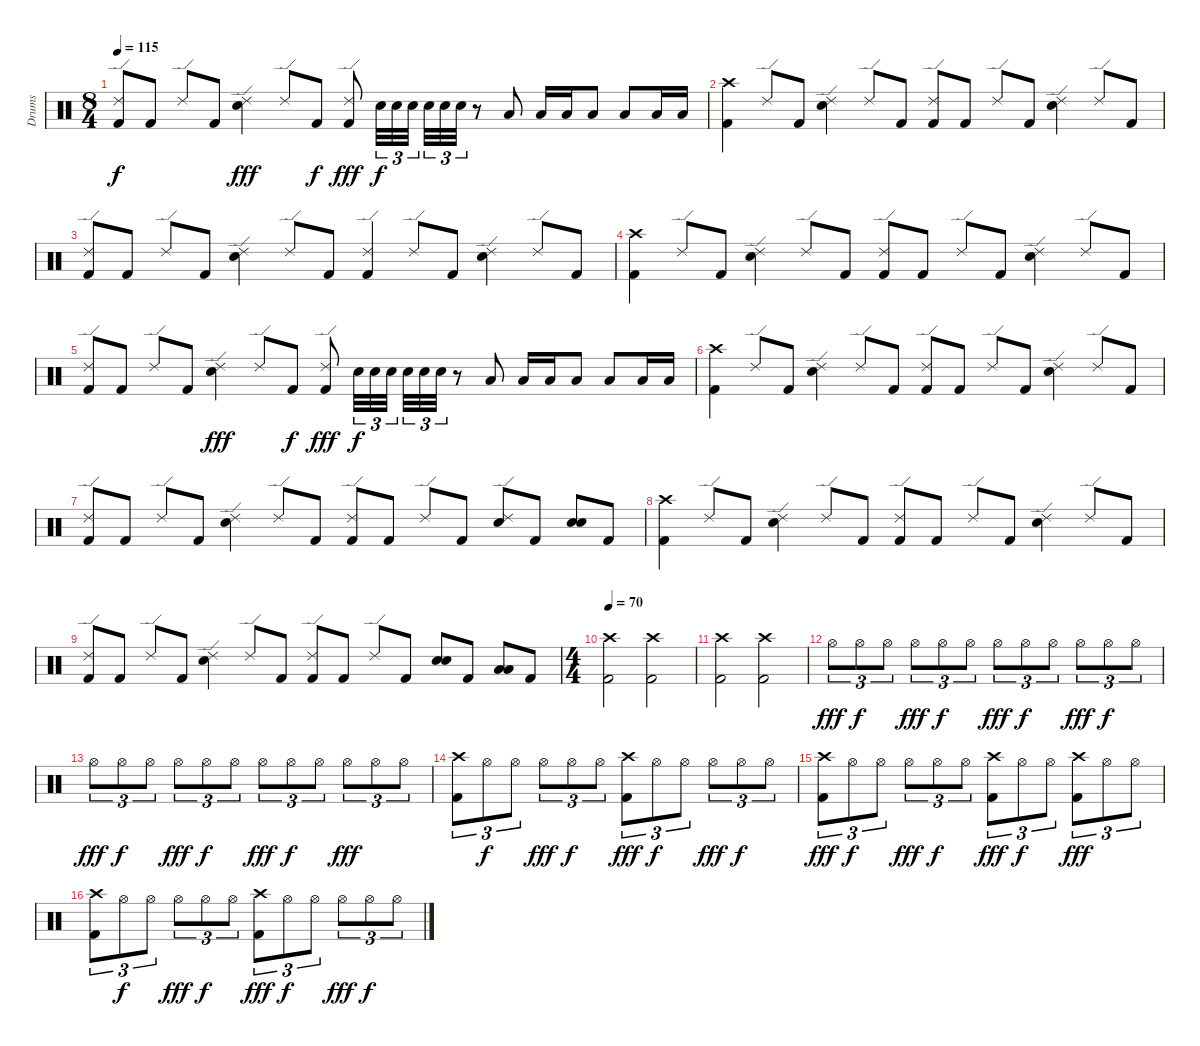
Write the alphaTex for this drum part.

\track ("Drums" "Drums") {instrument percussion}
\staff {score}
\articulation defaults
\ts (8 4)
\tempo 115
\clef neutral
\ks c
("Ride (edge) 2" "Kick (hit) 2").8{dy f} "Kick (hit) 2".8 "Ride (edge) 2".8 "Kick (hit) 2".8 ("Ride (edge) 2" "Electric Snare (hit)").4{dy fff} "Ride (edge) 2".8 "Kick (hit) 2".8{dy f} ("Ride (edge) 2" "Kick (hit) 2").8{dy fff} "Electric Snare (hit)".32{tu (3 2) dy f} "Electric Snare (hit)".32{tu (3 2)} "Electric Snare (hit)".32{tu (3 2)} "Electric Snare (hit)".32{tu (3 2)} "Electric Snare (hit)".32{tu (3 2)} "Electric Snare (hit)".32{tu (3 2)} r.8 "Low Tom (hit)".8 "Low Tom (hit)".16 "Low Tom (hit)".16 "Low Tom (hit)".8 "Low Tom (hit)".8 "Low Tom (hit)".16 "Low Tom (hit)".16 |
("Crash high (hit)" "Kick (hit) 2").4 "Ride (edge) 2".8 "Kick (hit) 2".8 ("Ride (edge) 2" "Electric Snare (hit)").4 "Ride (edge) 2".8 "Kick (hit) 2".8 ("Ride (edge) 2" "Kick (hit) 2").8 "Kick (hit) 2".8 "Ride (edge) 2".8 "Kick (hit) 2".8 ("Ride (edge) 2" "Electric Snare (hit)").4 "Ride (edge) 2".8 "Kick (hit) 2".8 |
("Ride (edge) 2" "Kick (hit) 2").8 "Kick (hit) 2".8 "Ride (edge) 2".8 "Kick (hit) 2".8 ("Ride (edge) 2" "Electric Snare (hit)").4 "Ride (edge) 2".8 "Kick (hit) 2".8 ("Ride (edge) 2" "Kick (hit) 2").4 "Ride (edge) 2".8 "Kick (hit) 2".8 ("Ride (edge) 2" "Electric Snare (hit)").4 "Ride (edge) 2".8 "Kick (hit) 2".8 |
("Crash high (hit)" "Kick (hit) 2").4 "Ride (edge) 2".8 "Kick (hit) 2".8 ("Ride (edge) 2" "Electric Snare (hit)").4 "Ride (edge) 2".8 "Kick (hit) 2".8 ("Ride (edge) 2" "Kick (hit) 2").8 "Kick (hit) 2".8 "Ride (edge) 2".8 "Kick (hit) 2".8 ("Ride (edge) 2" "Electric Snare (hit)").4 "Ride (edge) 2".8 "Kick (hit) 2".8 |
("Ride (edge) 2" "Kick (hit) 2").8 "Kick (hit) 2".8 "Ride (edge) 2".8 "Kick (hit) 2".8 ("Ride (edge) 2" "Electric Snare (hit)").4{dy fff} "Ride (edge) 2".8 "Kick (hit) 2".8{dy f} ("Ride (edge) 2" "Kick (hit) 2").8{dy fff} "Electric Snare (hit)".32{tu (3 2) dy f} "Electric Snare (hit)".32{tu (3 2)} "Electric Snare (hit)".32{tu (3 2)} "Electric Snare (hit)".32{tu (3 2)} "Electric Snare (hit)".32{tu (3 2)} "Electric Snare (hit)".32{tu (3 2)} r.8 "Low Tom (hit)".8 "Low Tom (hit)".16 "Low Tom (hit)".16 "Low Tom (hit)".8 "Low Tom (hit)".8 "Low Tom (hit)".16 "Low Tom (hit)".16 |
("Crash high (hit)" "Kick (hit) 2").4 "Ride (edge) 2".8 "Kick (hit) 2".8 ("Ride (edge) 2" "Electric Snare (hit)").4 "Ride (edge) 2".8 "Kick (hit) 2".8 ("Ride (edge) 2" "Kick (hit) 2").8 "Kick (hit) 2".8 "Ride (edge) 2".8 "Kick (hit) 2".8 ("Ride (edge) 2" "Electric Snare (hit)").4 "Ride (edge) 2".8 "Kick (hit) 2".8 |
("Ride (edge) 2" "Kick (hit) 2").8 "Kick (hit) 2".8 "Ride (edge) 2".8 "Kick (hit) 2".8 ("Ride (edge) 2" "Electric Snare (hit)").4 "Ride (edge) 2".8 "Kick (hit) 2".8 ("Ride (edge) 2" "Kick (hit) 2").8 "Kick (hit) 2".8 "Ride (edge) 2".8 "Kick (hit) 2".8 ("Ride (edge) 2" "Electric Snare (hit)").8 "Kick (hit) 2".8 ("Electric Snare (hit)" "Electric Snare (hit)").8{bu 60} "Kick (hit) 2".8 |
("Crash high (hit)" "Kick (hit) 2").4 "Ride (edge) 2".8 "Kick (hit) 2".8 ("Ride (edge) 2" "Electric Snare (hit)").4 "Ride (edge) 2".8 "Kick (hit) 2".8 ("Ride (edge) 2" "Kick (hit) 2").8 "Kick (hit) 2".8 "Ride (edge) 2".8 "Kick (hit) 2".8 ("Ride (edge) 2" "Electric Snare (hit)").4 "Ride (edge) 2".8 "Kick (hit) 2".8 |
("Ride (edge) 2" "Kick (hit) 2").8 "Kick (hit) 2".8 "Ride (edge) 2".8 "Kick (hit) 2".8 ("Ride (edge) 2" "Electric Snare (hit)").4 "Ride (edge) 2".8 "Kick (hit) 2".8 ("Ride (edge) 2" "Kick (hit) 2").8 "Kick (hit) 2".8 "Ride (edge) 2".8 "Kick (hit) 2".8 ("Electric Snare (hit)" "Electric Snare (hit)").8{bu 60} "Kick (hit) 2".8 ("Low Tom (hit)" "Low Tom (hit)").8{bu 60} "Kick (hit) 2".8 |
\ts (4 4)
\tempo 70
("Crash high (hit)" "Kick (hit) 2").2 ("Crash high (hit)" "Kick (hit) 2").2 |
("Crash high (hit)" "Kick (hit) 2").2 ("Crash high (hit)" "Kick (hit) 2").2 |
"Hi-Hat (open)".8{tu (3 2) dy fff} "Hi-Hat (open)".8{tu (3 2) dy f} "Hi-Hat (open)".8{tu (3 2)} "Hi-Hat (open)".8{tu (3 2) dy fff} "Hi-Hat (open)".8{tu (3 2) dy f} "Hi-Hat (open)".8{tu (3 2)} "Hi-Hat (open)".8{tu (3 2) dy fff} "Hi-Hat (open)".8{tu (3 2) dy f} "Hi-Hat (open)".8{tu (3 2)} "Hi-Hat (open)".8{tu (3 2) dy fff} "Hi-Hat (open)".8{tu (3 2) dy f} "Hi-Hat (open)".8{tu (3 2)} |
"Hi-Hat (open)".8{tu (3 2) dy fff} "Hi-Hat (open)".8{tu (3 2) dy f} "Hi-Hat (open)".8{tu (3 2)} "Hi-Hat (open)".8{tu (3 2) dy fff} "Hi-Hat (open)".8{tu (3 2) dy f} "Hi-Hat (open)".8{tu (3 2)} "Hi-Hat (open)".8{tu (3 2) dy fff} "Hi-Hat (open)".8{tu (3 2) dy f} "Hi-Hat (open)".8{tu (3 2)} "Hi-Hat (open)".8{tu (3 2) dy fff} "Hi-Hat (open)".8{tu (3 2)} "Hi-Hat (open)".8{tu (3 2)} |
("Crash high (hit)" "Kick (hit) 2").8{tu (3 2)} "Hi-Hat (open)".8{tu (3 2) dy f} "Hi-Hat (open)".8{tu (3 2)} "Hi-Hat (open)".8{tu (3 2) dy fff} "Hi-Hat (open)".8{tu (3 2) dy f} "Hi-Hat (open)".8{tu (3 2)} ("Crash high (hit)" "Kick (hit) 2").8{tu (3 2) dy fff} "Hi-Hat (open)".8{tu (3 2) dy f} "Hi-Hat (open)".8{tu (3 2)} "Hi-Hat (open)".8{tu (3 2) dy fff} "Hi-Hat (open)".8{tu (3 2) dy f} "Hi-Hat (open)".8{tu (3 2)} |
("Crash high (hit)" "Kick (hit) 2").8{tu (3 2) dy fff} "Hi-Hat (open)".8{tu (3 2) dy f} "Hi-Hat (open)".8{tu (3 2)} "Hi-Hat (open)".8{tu (3 2) dy fff} "Hi-Hat (open)".8{tu (3 2) dy f} "Hi-Hat (open)".8{tu (3 2)} ("Crash high (hit)" "Kick (hit) 2").8{tu (3 2) dy fff} "Hi-Hat (open)".8{tu (3 2) dy f} "Hi-Hat (open)".8{tu (3 2)} ("Crash high (hit)" "Kick (hit) 2").8{tu (3 2) dy fff} "Hi-Hat (open)".8{tu (3 2)} "Hi-Hat (open)".8{tu (3 2)} |
("Crash high (hit)" "Kick (hit) 2").8{tu (3 2)} "Hi-Hat (open)".8{tu (3 2) dy f} "Hi-Hat (open)".8{tu (3 2)} "Hi-Hat (open)".8{tu (3 2) dy fff} "Hi-Hat (open)".8{tu (3 2) dy f} "Hi-Hat (open)".8{tu (3 2)} ("Crash high (hit)" "Kick (hit) 2").8{tu (3 2) dy fff} "Hi-Hat (open)".8{tu (3 2) dy f} "Hi-Hat (open)".8{tu (3 2)} "Hi-Hat (open)".8{tu (3 2) dy fff} "Hi-Hat (open)".8{tu (3 2) dy f} "Hi-Hat (open)".8{tu (3 2)}
